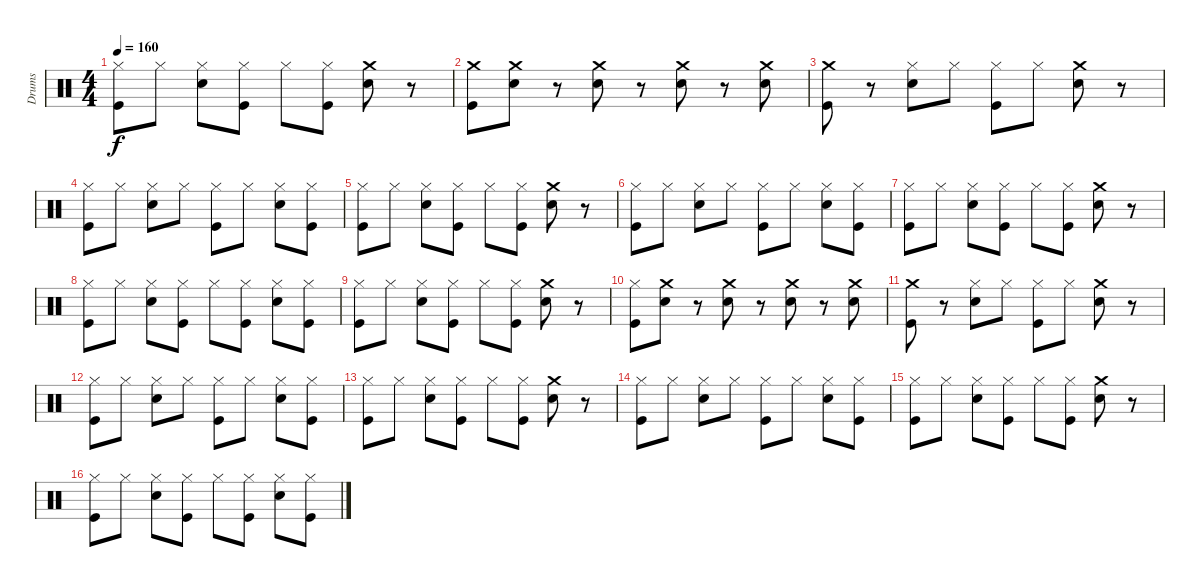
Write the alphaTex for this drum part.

\track ("Drums" "Drums") {instrument percussion}
\staff {score}
\articulation defaults
\ts (4 4)
\tempo 160
\clef neutral
\ks c
("Hi-Hat (closed)" "Kick (hit)").8{dy f} "Hi-Hat (closed)".8 ("Snare (hit) 2" "Hi-Hat (closed)").8 ("Kick (hit)" "Hi-Hat (closed)").8 "Hi-Hat (closed)".8 ("Kick (hit)" "Hi-Hat (closed)").8 ("Crash medium (hit)" "Snare (hit) 2").8 r.8 |
("Kick (hit)" "Crash medium (hit)").8 ("Snare (hit) 2" "Crash medium (hit)").8 r.8 ("Crash medium (hit)" "Snare (hit) 2").8 r.8 ("Snare (hit) 2" "Crash medium (hit)").8 r.8 ("Snare (hit) 2" "Crash medium (hit)").8 |
("Kick (hit)" "Crash medium (hit)").8 r.8 ("Hi-Hat (closed)" "Snare (hit) 2").8 "Hi-Hat (closed)".8 ("Kick (hit)" "Hi-Hat (closed)").8 "Hi-Hat (closed)".8 ("Crash medium (hit)" "Snare (hit) 2").8 r.8 |
("Kick (hit)" "Hi-Hat (closed)").8 "Hi-Hat (closed)".8 ("Snare (hit) 2" "Hi-Hat (closed)").8 "Hi-Hat (closed)".8 ("Kick (hit)" "Hi-Hat (closed)").8 "Hi-Hat (closed)".8 ("Hi-Hat (closed)" "Snare (hit) 2").8 ("Hi-Hat (closed)" "Kick (hit)").8 |
("Hi-Hat (closed)" "Kick (hit)").8 "Hi-Hat (closed)".8 ("Snare (hit) 2" "Hi-Hat (closed)").8 ("Kick (hit)" "Hi-Hat (closed)").8 "Hi-Hat (closed)".8 ("Kick (hit)" "Hi-Hat (closed)").8 ("Crash medium (hit)" "Snare (hit) 2").8 r.8 |
("Hi-Hat (closed)" "Kick (hit)").8 "Hi-Hat (closed)".8 ("Snare (hit) 2" "Hi-Hat (closed)").8 "Hi-Hat (closed)".8 ("Hi-Hat (closed)" "Kick (hit)").8 "Hi-Hat (closed)".8 ("Snare (hit) 2" "Hi-Hat (closed)").8 ("Kick (hit)" "Hi-Hat (closed)").8 |
("Hi-Hat (closed)" "Kick (hit)").8 "Hi-Hat (closed)".8 ("Snare (hit) 2" "Hi-Hat (closed)").8 ("Hi-Hat (closed)" "Kick (hit)").8 "Hi-Hat (closed)".8 ("Kick (hit)" "Hi-Hat (closed)").8 ("Crash medium (hit)" "Snare (hit) 2").8 r.8 |
("Hi-Hat (closed)" "Kick (hit)").8 "Hi-Hat (closed)".8 ("Snare (hit) 2" "Hi-Hat (closed)").8 ("Kick (hit)" "Hi-Hat (closed)").8 "Hi-Hat (closed)".8 ("Kick (hit)" "Hi-Hat (closed)").8 ("Hi-Hat (closed)" "Snare (hit) 2").8 ("Hi-Hat (closed)" "Kick (hit)").8 |
("Hi-Hat (closed)" "Kick (hit)").8 "Hi-Hat (closed)".8 ("Snare (hit) 2" "Hi-Hat (closed)").8 ("Kick (hit)" "Hi-Hat (closed)").8 "Hi-Hat (closed)".8 ("Kick (hit)" "Hi-Hat (closed)").8 ("Crash medium (hit)" "Snare (hit) 2").8 r.8 |
("Hi-Hat (closed)" "Kick (hit)").8 ("Crash medium (hit)" "Snare (hit) 2").8 r.8 ("Snare (hit) 2" "Crash medium (hit)").8 r.8 ("Snare (hit) 2" "Crash medium (hit)").8 r.8 ("Snare (hit) 2" "Crash medium (hit)").8 |
("Crash medium (hit)" "Kick (hit)").8 r.8 ("Hi-Hat (closed)" "Snare (hit) 2").8 "Hi-Hat (closed)".8 ("Kick (hit)" "Hi-Hat (closed)").8 "Hi-Hat (closed)".8 ("Crash medium (hit)" "Snare (hit) 2").8 r.8 |
("Hi-Hat (closed)" "Kick (hit)").8 "Hi-Hat (closed)".8 ("Snare (hit) 2" "Hi-Hat (closed)").8 "Hi-Hat (closed)".8 ("Hi-Hat (closed)" "Kick (hit)").8 "Hi-Hat (closed)".8 ("Snare (hit) 2" "Hi-Hat (closed)").8 ("Kick (hit)" "Hi-Hat (closed)").8 |
("Hi-Hat (closed)" "Kick (hit)").8 "Hi-Hat (closed)".8 ("Snare (hit) 2" "Hi-Hat (closed)").8 ("Kick (hit)" "Hi-Hat (closed)").8 "Hi-Hat (closed)".8 ("Kick (hit)" "Hi-Hat (closed)").8 ("Crash medium (hit)" "Snare (hit) 2").8 r.8 |
("Hi-Hat (closed)" "Kick (hit)").8 "Hi-Hat (closed)".8 ("Snare (hit) 2" "Hi-Hat (closed)").8 "Hi-Hat (closed)".8 ("Kick (hit)" "Hi-Hat (closed)").8 "Hi-Hat (closed)".8 ("Snare (hit) 2" "Hi-Hat (closed)").8 ("Kick (hit)" "Hi-Hat (closed)").8 |
("Hi-Hat (closed)" "Kick (hit)").8 "Hi-Hat (closed)".8 ("Snare (hit) 2" "Hi-Hat (closed)").8 ("Kick (hit)" "Hi-Hat (closed)").8 "Hi-Hat (closed)".8 ("Hi-Hat (closed)" "Kick (hit)").8 ("Crash medium (hit)" "Snare (hit) 2").8 r.8 |
("Hi-Hat (closed)" "Kick (hit)").8 "Hi-Hat (closed)".8 ("Snare (hit) 2" "Hi-Hat (closed)").8 ("Kick (hit)" "Hi-Hat (closed)").8 "Hi-Hat (closed)".8 ("Kick (hit)" "Hi-Hat (closed)").8 ("Hi-Hat (closed)" "Snare (hit) 2").8 ("Hi-Hat (closed)" "Kick (hit)").8
